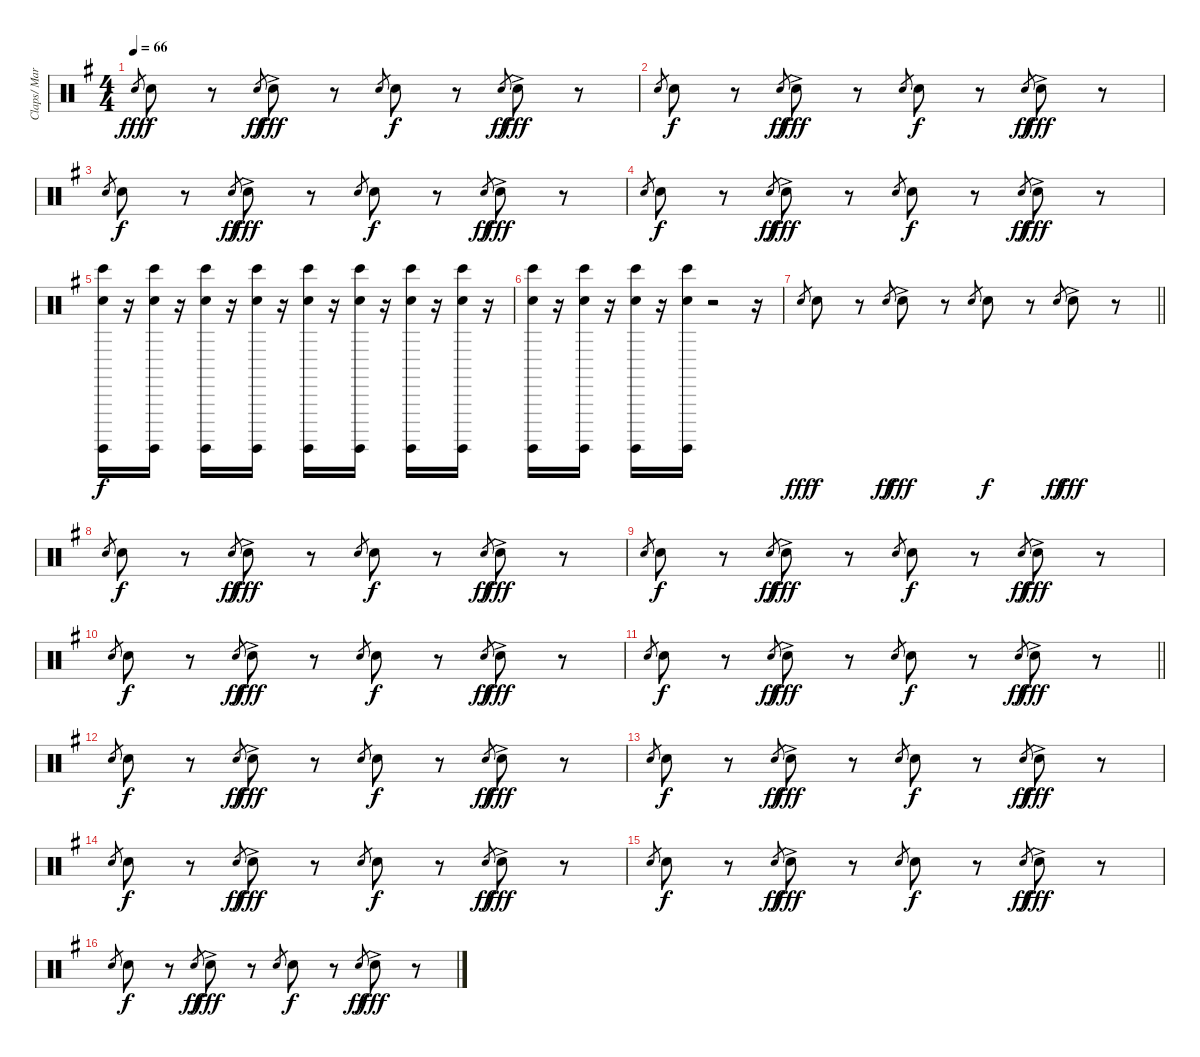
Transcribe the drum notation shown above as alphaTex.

\track ("Claps/ Marching FX" "Claps/ Mar") {instrument percussion}
\staff {score}
\articulation defaults
\ts (4 4)
\tempo 66
\clef neutral
\ks g "Hand Clap (hit)".8{gr dy fff} "Hand Clap (hit)".8{dy f balance 12}
r.8 "Hand Clap (hit)".8{gr dy ff} "Hand Clap (hit)"{ac}.8{dy fff balance 4} r.8 "Hand Clap (hit)".8{gr} "Hand Clap (hit)".8{dy f balance 12} r.8 "Hand Clap (hit)".8{gr dy ff} "Hand Clap (hit)"{ac}.8{dy fff balance 4} r.8 |
"Hand Clap (hit)".8{gr} "Hand Clap (hit)".8{dy f balance 12} r.8 "Hand Clap (hit)".8{gr dy ff} "Hand Clap (hit)"{ac}.8{dy fff balance 4} r.8 "Hand Clap (hit)".8{gr} "Hand Clap (hit)".8{dy f balance 12} r.8 "Hand Clap (hit)".8{gr dy ff} "Hand Clap (hit)"{ac}.8{dy fff balance 4} r.8 |
"Hand Clap (hit)".8{gr} "Hand Clap (hit)".8{dy f balance 12} r.8 "Hand Clap (hit)".8{gr dy ff} "Hand Clap (hit)"{ac}.8{dy fff balance 4} r.8 "Hand Clap (hit)".8{gr} "Hand Clap (hit)".8{dy f balance 12} r.8 "Hand Clap (hit)".8{gr dy ff} "Hand Clap (hit)"{ac}.8{dy fff balance 4} r.8 |
"Hand Clap (hit)".8{gr} "Hand Clap (hit)".8{dy f balance 12} r.8 "Hand Clap (hit)".8{gr dy ff} "Hand Clap (hit)"{ac}.8{dy fff balance 4} r.8 "Hand Clap (hit)".8{gr} "Hand Clap (hit)".8{dy f balance 12} r.8 "Hand Clap (hit)".8{gr dy ff} "Hand Clap (hit)"{ac}.8{dy fff balance 4} r.8 |
("Surdo (hit)" "Hand Clap (hit)" "Bongo High (hit)").16{dy f balance 0} r.16 ("Surdo (hit)" "Hand Clap (hit)" "Bongo High (hit)").16{balance 16} r.16 ("Surdo (hit)" "Hand Clap (hit)" "Bongo High (hit)").16{balance 0} r.16 ("Surdo (hit)" "Hand Clap (hit)" "Bongo High (hit)").16{balance 16} r.16 ("Surdo (hit)" "Hand Clap (hit)" "Bongo High (hit)").16{balance 0} r.16 ("Surdo (hit)" "Hand Clap (hit)" "Bongo High (hit)").16{balance 16} r.16 ("Surdo (hit)" "Hand Clap (hit)" "Bongo High (hit)").16{balance 0} r.16 ("Surdo (hit)" "Hand Clap (hit)" "Bongo High (hit)").16{balance 16} r.16 |
("Surdo (hit)" "Hand Clap (hit)" "Bongo High (hit)").16{balance 0} r.16 ("Surdo (hit)" "Hand Clap (hit)" "Bongo High (hit)").16{balance 16} r.16 ("Surdo (hit)" "Hand Clap (hit)" "Bongo High (hit)").16{balance 0} r.16 ("Surdo (hit)" "Hand Clap (hit)" "Bongo High (hit)").16{balance 8} r.2 r.16 |
\barLineRight lightlight "Hand Clap (hit)".8{gr dy fff} "Hand Clap (hit)".8{dy f balance 12}
r.8 "Hand Clap (hit)".8{gr dy ff} "Hand Clap (hit)"{ac}.8{dy fff balance 4} r.8 "Hand Clap (hit)".8{gr} "Hand Clap (hit)".8{dy f balance 12} r.8 "Hand Clap (hit)".8{gr dy ff} "Hand Clap (hit)"{ac}.8{dy fff balance 4} r.8 |
"Hand Clap (hit)".8{gr} "Hand Clap (hit)".8{dy f balance 12} r.8 "Hand Clap (hit)".8{gr dy ff} "Hand Clap (hit)"{ac}.8{dy fff balance 4} r.8 "Hand Clap (hit)".8{gr} "Hand Clap (hit)".8{dy f balance 12} r.8 "Hand Clap (hit)".8{gr dy ff} "Hand Clap (hit)"{ac}.8{dy fff balance 4} r.8 |
"Hand Clap (hit)".8{gr} "Hand Clap (hit)".8{dy f balance 12} r.8 "Hand Clap (hit)".8{gr dy ff} "Hand Clap (hit)"{ac}.8{dy fff balance 4} r.8 "Hand Clap (hit)".8{gr} "Hand Clap (hit)".8{dy f balance 12} r.8 "Hand Clap (hit)".8{gr dy ff} "Hand Clap (hit)"{ac}.8{dy fff balance 4} r.8 |
"Hand Clap (hit)".8{gr} "Hand Clap (hit)".8{dy f balance 12} r.8 "Hand Clap (hit)".8{gr dy ff} "Hand Clap (hit)"{ac}.8{dy fff balance 4} r.8 "Hand Clap (hit)".8{gr} "Hand Clap (hit)".8{dy f balance 12} r.8 "Hand Clap (hit)".8{gr dy ff} "Hand Clap (hit)"{ac}.8{dy fff balance 4} r.8 |
\barLineRight lightlight "Hand Clap (hit)".8{gr} "Hand Clap (hit)".8{dy f balance 12}
r.8 "Hand Clap (hit)".8{gr dy ff} "Hand Clap (hit)"{ac}.8{dy fff balance 4} r.8 "Hand Clap (hit)".8{gr} "Hand Clap (hit)".8{dy f balance 12} r.8 "Hand Clap (hit)".8{gr dy ff} "Hand Clap (hit)"{ac}.8{dy fff balance 4} r.8 |
"Hand Clap (hit)".8{gr} "Hand Clap (hit)".8{dy f balance 12} r.8 "Hand Clap (hit)".8{gr dy ff} "Hand Clap (hit)"{ac}.8{dy fff balance 4} r.8 "Hand Clap (hit)".8{gr} "Hand Clap (hit)".8{dy f balance 12} r.8 "Hand Clap (hit)".8{gr dy ff} "Hand Clap (hit)"{ac}.8{dy fff balance 4} r.8 |
"Hand Clap (hit)".8{gr} "Hand Clap (hit)".8{dy f balance 12} r.8 "Hand Clap (hit)".8{gr dy ff} "Hand Clap (hit)"{ac}.8{dy fff balance 4} r.8 "Hand Clap (hit)".8{gr} "Hand Clap (hit)".8{dy f balance 12} r.8 "Hand Clap (hit)".8{gr dy ff} "Hand Clap (hit)"{ac}.8{dy fff balance 4} r.8 |
"Hand Clap (hit)".8{gr} "Hand Clap (hit)".8{dy f balance 12} r.8 "Hand Clap (hit)".8{gr dy ff} "Hand Clap (hit)"{ac}.8{dy fff balance 4} r.8 "Hand Clap (hit)".8{gr} "Hand Clap (hit)".8{dy f balance 12} r.8 "Hand Clap (hit)".8{gr dy ff} "Hand Clap (hit)"{ac}.8{dy fff balance 4} r.8 |
"Hand Clap (hit)".8{gr} "Hand Clap (hit)".8{dy f balance 12} r.8 "Hand Clap (hit)".8{gr dy ff} "Hand Clap (hit)"{ac}.8{dy fff balance 4} r.8 "Hand Clap (hit)".8{gr} "Hand Clap (hit)".8{dy f balance 12} r.8 "Hand Clap (hit)".8{gr dy ff} "Hand Clap (hit)"{ac}.8{dy fff balance 4} r.8 |
"Hand Clap (hit)".8{gr} "Hand Clap (hit)".8{dy f balance 12} r.8 "Hand Clap (hit)".8{gr dy ff} "Hand Clap (hit)"{ac}.8{dy fff balance 4} r.8 "Hand Clap (hit)".8{gr} "Hand Clap (hit)".8{dy f balance 12} r.8 "Hand Clap (hit)".8{gr dy ff} "Hand Clap (hit)"{ac}.8{dy fff balance 4} r.8
